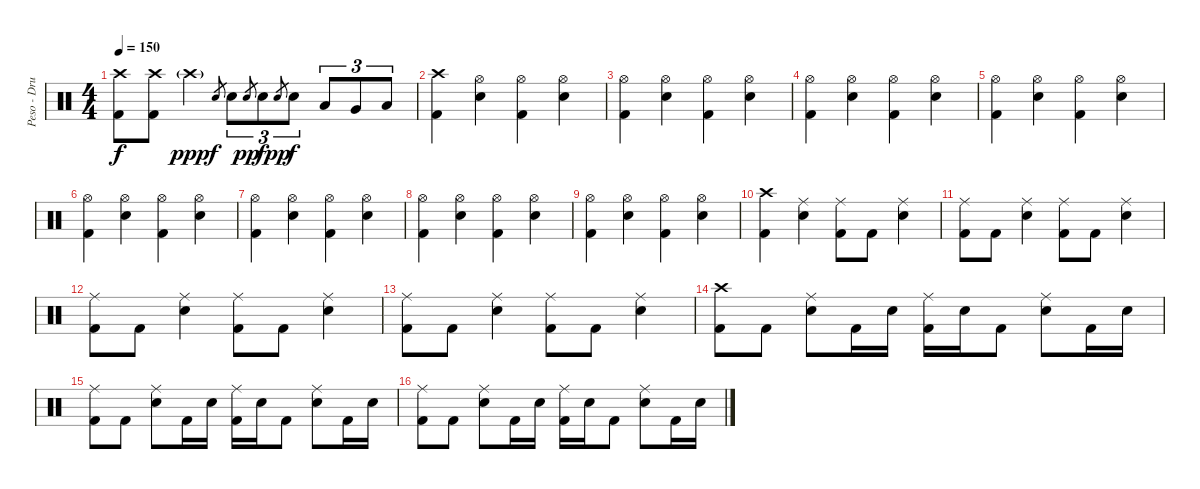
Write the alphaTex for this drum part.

\track ("Peso - Drums" "Peso - Dru") {instrument percussion}
\staff {score}
\articulation defaults
\ts (4 4)
\tempo 150
\clef neutral
\ks c
("Crash high (hit)" "Kick (hit) 2").8{dy f} ("Crash high (hit)" "Kick (hit) 2").8 "Crash high (hit)"{g}.4{dy ppp} "Electric Snare (hit)".8{gr dy f} "Electric Snare (hit)".8{tu (3 2)} "Electric Snare (hit)".8{gr dy pp} "Electric Snare (hit)".8{tu (3 2) dy f} "Electric Snare (hit)".8{gr dy pp} "Electric Snare (hit)".8{tu (3 2) dy f} "Low Tom (hit)".8{tu (3 2)} "Very Low Tom (hit)".8{tu (3 2)} "Low Floor Tom (hit)".8{tu (3 2)} |
("Crash high (hit)" "Kick (hit) 2").4 ("Hi-Hat (open)" "Electric Snare (hit)").4 ("Hi-Hat (open)" "Kick (hit) 2").4 ("Hi-Hat (open)" "Electric Snare (hit)").4 |
("Hi-Hat (open)" "Kick (hit) 2").4 ("Hi-Hat (open)" "Electric Snare (hit)").4 ("Hi-Hat (open)" "Kick (hit) 2").4 ("Hi-Hat (open)" "Electric Snare (hit)").4 |
("Hi-Hat (open)" "Kick (hit) 2").4 ("Hi-Hat (open)" "Electric Snare (hit)").4 ("Hi-Hat (open)" "Kick (hit) 2").4 ("Hi-Hat (open)" "Electric Snare (hit)").4 |
("Hi-Hat (open)" "Kick (hit) 2").4 ("Hi-Hat (open)" "Electric Snare (hit)").4 ("Hi-Hat (open)" "Kick (hit) 2").4 ("Hi-Hat (open)" "Electric Snare (hit)").4 |
("Hi-Hat (open)" "Kick (hit) 2").4 ("Hi-Hat (open)" "Electric Snare (hit)").4 ("Hi-Hat (open)" "Kick (hit) 2").4 ("Hi-Hat (open)" "Electric Snare (hit)").4 |
("Hi-Hat (open)" "Kick (hit) 2").4 ("Hi-Hat (open)" "Electric Snare (hit)").4 ("Hi-Hat (open)" "Kick (hit) 2").4 ("Hi-Hat (open)" "Electric Snare (hit)").4 |
("Hi-Hat (open)" "Kick (hit) 2").4 ("Hi-Hat (open)" "Electric Snare (hit)").4 ("Hi-Hat (open)" "Kick (hit) 2").4 ("Hi-Hat (open)" "Electric Snare (hit)").4 |
("Hi-Hat (open)" "Kick (hit) 2").4 ("Hi-Hat (open)" "Electric Snare (hit)").4 ("Hi-Hat (open)" "Kick (hit) 2").4 ("Hi-Hat (open)" "Electric Snare (hit)").4 |
("Crash high (hit)" "Kick (hit) 2").4 ("Ride (middle)" "Electric Snare (hit)").4 ("Ride (middle)" "Kick (hit) 2").8 "Kick (hit) 2".8 ("Ride (middle)" "Electric Snare (hit)").4 |
("Ride (middle)" "Kick (hit) 2").8 "Kick (hit) 2".8 ("Ride (middle)" "Electric Snare (hit)").4 ("Ride (middle)" "Kick (hit) 2").8 "Kick (hit) 2".8 ("Ride (middle)" "Electric Snare (hit)").4 |
("Ride (middle)" "Kick (hit) 2").8 "Kick (hit) 2".8 ("Ride (middle)" "Electric Snare (hit)").4 ("Ride (middle)" "Kick (hit) 2").8 "Kick (hit) 2".8 ("Ride (middle)" "Electric Snare (hit)").4 |
("Ride (middle)" "Kick (hit) 2").8 "Kick (hit) 2".8 ("Ride (middle)" "Electric Snare (hit)").4 ("Ride (middle)" "Kick (hit) 2").8 "Kick (hit) 2".8 ("Ride (middle)" "Electric Snare (hit)").4 |
("Crash high (hit)" "Kick (hit) 2").8 "Kick (hit) 2".8 ("Ride (middle)" "Electric Snare (hit)").8 "Kick (hit) 2".16 "Electric Snare (hit)".16 ("Ride (middle)" "Kick (hit) 2").16 "Electric Snare (hit)".16 "Kick (hit) 2".8 ("Ride (middle)" "Electric Snare (hit)").8 "Kick (hit) 2".16 "Electric Snare (hit)".16 |
("Ride (middle)" "Kick (hit) 2").8 "Kick (hit) 2".8 ("Ride (middle)" "Electric Snare (hit)").8 "Kick (hit) 2".16 "Electric Snare (hit)".16 ("Ride (middle)" "Kick (hit) 2").16 "Electric Snare (hit)".16 "Kick (hit) 2".8 ("Ride (middle)" "Electric Snare (hit)").8 "Kick (hit) 2".16 "Electric Snare (hit)".16 |
("Ride (middle)" "Kick (hit) 2").8 "Kick (hit) 2".8 ("Ride (middle)" "Electric Snare (hit)").8 "Kick (hit) 2".16 "Electric Snare (hit)".16 ("Ride (middle)" "Kick (hit) 2").16 "Electric Snare (hit)".16 "Kick (hit) 2".8 ("Ride (middle)" "Electric Snare (hit)").8 "Kick (hit) 2".16 "Electric Snare (hit)".16
